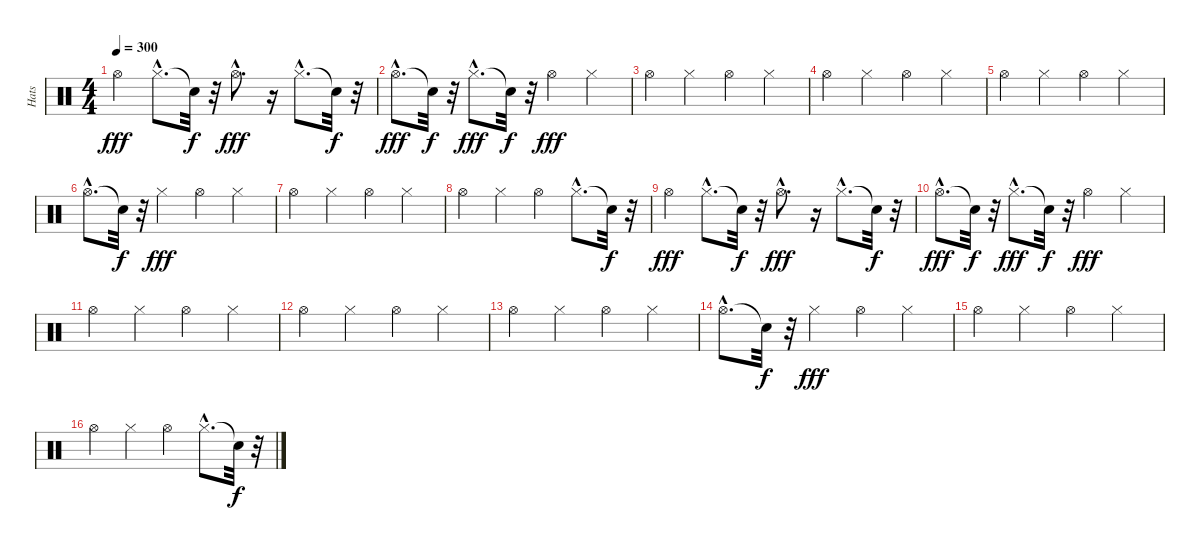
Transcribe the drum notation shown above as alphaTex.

\track ("Hats" "Hats") {instrument percussion}
\staff {score}
\articulation defaults
\ts (4 4)
\tempo 300
\clef neutral
\ks c "Hi-Hat (open)".4{dy fff} "Hi-Hat (closed)"{hac}.8{d} "Snare (hit)"{t}.32{dy f}
r.32 "Hi-Hat (open)"{hac}.8{d dy fff} r.16 "Hi-Hat (closed)"{hac}.8{d} "Snare (hit)"{t}.32{dy f} r.32 |
"Hi-Hat (open)"{hac}.8{d dy fff} "Snare (hit)"{t}.32{dy f} r.32 "Hi-Hat (closed)"{hac}.8{d dy fff} "Snare (hit)"{t}.32{dy f} r.32 "Hi-Hat (open)".4{dy fff} "Hi-Hat (closed)".4 |
"Hi-Hat (open)".4 "Hi-Hat (closed)".4 "Hi-Hat (open)".4 "Hi-Hat (closed)".4 |
"Hi-Hat (open)".4 "Hi-Hat (closed)".4 "Hi-Hat (open)".4 "Hi-Hat (closed)".4 |
"Hi-Hat (open)".4 "Hi-Hat (closed)".4 "Hi-Hat (open)".4 "Hi-Hat (closed)".4 |
"Hi-Hat (open)"{hac}.8{d} "Snare (hit)"{t}.32{dy f} r.32 "Hi-Hat (closed)".4{dy fff} "Hi-Hat (open)".4 "Hi-Hat (closed)".4 |
"Hi-Hat (open)".4 "Hi-Hat (closed)".4 "Hi-Hat (open)".4 "Hi-Hat (closed)".4 |
"Hi-Hat (open)".4 "Hi-Hat (closed)".4 "Hi-Hat (open)".4 "Hi-Hat (closed)"{hac}.8{d} "Snare (hit)"{t}.32{dy f} r.32 |
"Hi-Hat (open)".4{dy fff} "Hi-Hat (closed)"{hac}.8{d} "Snare (hit)"{t}.32{dy f} r.32 "Hi-Hat (open)"{hac}.8{d dy fff} r.16 "Hi-Hat (closed)"{hac}.8{d} "Snare (hit)"{t}.32{dy f} r.32 |
"Hi-Hat (open)"{hac}.8{d dy fff} "Snare (hit)"{t}.32{dy f} r.32 "Hi-Hat (closed)"{hac}.8{d dy fff} "Snare (hit)"{t}.32{dy f} r.32 "Hi-Hat (open)".4{dy fff} "Hi-Hat (closed)".4 |
"Hi-Hat (open)".4 "Hi-Hat (closed)".4 "Hi-Hat (open)".4 "Hi-Hat (closed)".4 |
"Hi-Hat (open)".4 "Hi-Hat (closed)".4 "Hi-Hat (open)".4 "Hi-Hat (closed)".4 |
"Hi-Hat (open)".4 "Hi-Hat (closed)".4 "Hi-Hat (open)".4 "Hi-Hat (closed)".4 |
"Hi-Hat (open)"{hac}.8{d} "Snare (hit)"{t}.32{dy f} r.32 "Hi-Hat (closed)".4{dy fff} "Hi-Hat (open)".4 "Hi-Hat (closed)".4 |
"Hi-Hat (open)".4 "Hi-Hat (closed)".4 "Hi-Hat (open)".4 "Hi-Hat (closed)".4 |
"Hi-Hat (open)".4 "Hi-Hat (closed)".4 "Hi-Hat (open)".4 "Hi-Hat (closed)"{hac}.8{d} "Snare (hit)"{t}.32{dy f} r.32
